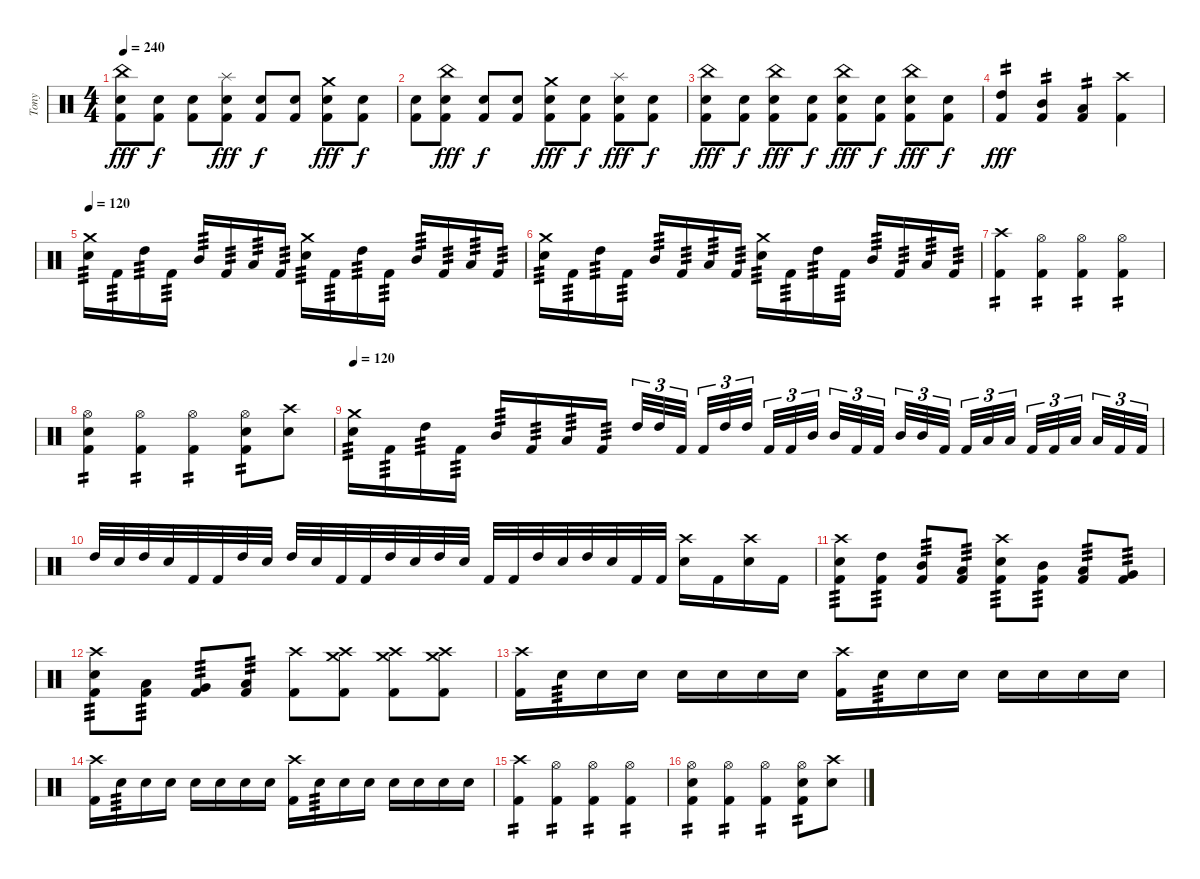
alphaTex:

\track ("Tony" "Tony") {instrument percussion}
\staff {score}
\articulation defaults
\ts (4 4)
\tempo 240
\clef neutral
\ks c
("China (hit)" "Snare (hit) 2" "Kick (hit) 2").8{dy fff} ("Snare (hit) 2" "Kick (hit) 2").8{dy f} ("Snare (hit) 2" "Kick (hit) 2").8 ("Splash (hit)" "Snare (hit) 2" "Kick (hit) 2").8{dy fff} ("Snare (hit) 2" "Kick (hit) 2").8{dy f} ("Snare (hit) 2" "Kick (hit) 2").8 ("Crash medium (hit)" "Snare (hit) 2" "Kick (hit) 2").8{dy fff} ("Snare (hit) 2" "Kick (hit) 2").8{dy f} |
("Snare (hit) 2" "Kick (hit) 2").8 ("China (hit)" "Snare (hit) 2" "Kick (hit) 2").8{dy fff} ("Snare (hit) 2" "Kick (hit) 2").8{dy f} ("Snare (hit) 2" "Kick (hit) 2").8 ("Crash medium (hit)" "Snare (hit) 2" "Kick (hit) 2").8{dy fff} ("Snare (hit) 2" "Kick (hit) 2").8{dy f} ("Splash (hit)" "Snare (hit) 2" "Kick (hit) 2").8{dy fff} ("Snare (hit) 2" "Kick (hit) 2").8{dy f} |
("China (hit)" "Snare (hit) 2" "Kick (hit) 2").8{dy fff} ("Snare (hit) 2" "Kick (hit) 2").8{dy f} ("China (hit)" "Snare (hit) 2" "Kick (hit) 2").8{dy fff} ("Snare (hit) 2" "Kick (hit) 2").8{dy f} ("China (hit)" "Snare (hit) 2" "Kick (hit) 2").8{dy fff} ("Snare (hit) 2" "Kick (hit) 2").8{dy f} ("China (hit)" "Snare (hit) 2" "Kick (hit) 2").8{dy fff} ("Snare (hit) 2" "Kick (hit) 2").8{dy f} |
("High Tom (hit)" "Kick (hit) 2").4{tp 2 dy fff} ("Mid Tom (hit)" "Kick (hit) 2").4{tp 2} ("Low Tom (hit)" "Kick (hit) 2").4{tp 2} ("Crash high (hit)" "Kick (hit) 2").4 |
\tempo 120
("Crash medium (hit)" "Snare (hit) 2").16{tp 3} "Kick (hit) 2".16{tp 3} "High Tom (hit)".16{tp 3} "Kick (hit) 2".16{tp 3} "Mid Tom (hit)".16{tp 3} "Kick (hit) 2".16{tp 3} "Low Tom (hit)".16{tp 3} "Kick (hit) 2".16{tp 3} ("Crash medium (hit)" "Snare (hit) 2").16{tp 3} "Kick (hit) 2".16{tp 3} "High Tom (hit)".16{tp 3} "Kick (hit) 2".16{tp 3} "Mid Tom (hit)".16{tp 3} "Kick (hit) 2".16{tp 3} "Low Tom (hit)".16{tp 3} "Kick (hit) 2".16{tp 3} |
("Crash medium (hit)" "Snare (hit) 2").16{tp 3} "Kick (hit) 2".16{tp 3} "High Tom (hit)".16{tp 3} "Kick (hit) 2".16{tp 3} "Mid Tom (hit)".16{tp 3} "Kick (hit) 2".16{tp 3} "Low Tom (hit)".16{tp 3} "Kick (hit) 2".16{tp 3} ("Crash medium (hit)" "Snare (hit) 2").16{tp 3} "Kick (hit) 2".16{tp 3} "High Tom (hit)".16{tp 3} "Kick (hit) 2".16{tp 3} "Mid Tom (hit)".16{tp 3} "Kick (hit) 2".16{tp 3} "Low Tom (hit)".16{tp 3} "Kick (hit) 2".16{tp 3} |
("Crash high (hit)" "Kick (hit) 2").4{tp 2} ("Hi-Hat (open)" "Kick (hit) 2").4{tp 2} ("Hi-Hat (open)" "Kick (hit) 2").4{tp 2} ("Hi-Hat (open)" "Kick (hit) 2").4{tp 2} |
("Hi-Hat (open)" "Snare (hit) 2" "Kick (hit) 2").4{tp 2} ("Hi-Hat (open)" "Kick (hit) 2").4{tp 2} ("Hi-Hat (open)" "Kick (hit) 2").4{tp 2} ("Hi-Hat (open)" "Snare (hit)" "Kick (hit) 2").8{tp 2} ("Crash high (hit)" "Snare (hit) 2").8 |
\tempo 120
("Crash medium (hit)" "Snare (hit) 2").16{tp 3} "Kick (hit) 2".16{tp 3} "High Tom (hit)".16{tp 3} "Kick (hit) 2".16{tp 3} "Mid Tom (hit)".16{tp 3} "Kick (hit) 2".16{tp 3} "Low Tom (hit)".16{tp 3} "Kick (hit) 2".16{tp 3} "High Tom (hit)".32{tu (3 2)} "High Tom (hit)".32{tu (3 2)} "Kick (hit) 2".32{tu (3 2) beam splitsecondary} "Kick (hit) 2".32{tu (3 2)} "High Tom (hit)".32{tu (3 2)} "High Tom (hit)".32{tu (3 2) beam splitsecondary} "Kick (hit) 2".32{tu (3 2)} "Kick (hit) 2".32{tu (3 2)} "Mid Tom (hit)".32{tu (3 2) beam splitsecondary} "Mid Tom (hit)".32{tu (3 2)} "Kick (hit) 2".32{tu (3 2)} "Kick (hit) 2".32{tu (3 2)} "Mid Tom (hit)".32{tu (3 2)} "Mid Tom (hit)".32{tu (3 2)} "Kick (hit) 2".32{tu (3 2) beam splitsecondary} "Kick (hit) 2".32{tu (3 2)} "Low Tom (hit)".32{tu (3 2)} "Low Tom (hit)".32{tu (3 2) beam splitsecondary} "Kick (hit) 2".32{tu (3 2)} "Kick (hit) 2".32{tu (3 2)} "Low Tom (hit)".32{tu (3 2) beam splitsecondary} "Low Tom (hit)".32{tu (3 2)} "Kick (hit) 2".32{tu (3 2)} "Kick (hit) 2".32{tu (3 2)} |
"High Tom (hit)".32 "Snare (hit) 2".32 "High Tom (hit)".32 "Snare (hit) 2".32 "Kick (hit) 2".32 "Kick (hit) 2".32 "High Tom (hit)".32 "Snare (hit) 2".32 "High Tom (hit)".32 "Snare (hit) 2".32 "Kick (hit) 2".32 "Kick (hit) 2".32 "High Tom (hit)".32 "Snare (hit) 2".32 "High Tom (hit)".32 "Snare (hit) 2".32 "Kick (hit) 2".32 "Kick (hit) 2".32 "High Tom (hit)".32 "Snare (hit) 2".32 "High Tom (hit)".32 "Snare (hit) 2".32 "Kick (hit) 2".32 "Kick (hit) 2".32 ("Crash high (hit)" "Snare (hit) 2").16 "Kick (hit) 2".16 ("Crash high (hit)" "Snare (hit) 2").16 "Kick (hit) 2".16 |
("Crash high (hit)" "Snare (hit)" "Kick (hit) 2").8{tp 3} ("High Tom (hit)" "Kick (hit) 2").8{tp 3} ("Mid Tom (hit)" "Kick (hit) 2").8{tp 3} ("Low Tom (hit)" "Kick (hit) 2").8{tp 3} ("Crash high (hit)" "Snare (hit)" "Kick (hit) 2").8{tp 3} ("Mid Tom (hit)" "Kick (hit) 2").8{tp 3} ("Low Tom (hit)" "Kick (hit) 2").8{tp 3} ("Very Low Tom (hit)" "Kick (hit) 2").8{tp 3} |
("Crash high (hit)" "Snare (hit)" "Kick (hit) 2").8{tp 3} ("Low Tom (hit)" "Kick (hit) 2").8{tp 3} ("Very Low Tom (hit)" "Kick (hit) 2").8{tp 3} ("Low Floor Tom (hit)" "Kick (hit) 2").8{tp 3} ("Crash high (hit)" "Kick (hit) 2").8 ("Crash medium (hit)" "Crash high (hit)" "Kick (hit) 2").8 ("Crash medium (hit)" "Crash high (hit)" "Kick (hit) 2").8 ("Crash medium (hit)" "Crash high (hit)" "Kick (hit) 2").8 |
("Crash high (hit)" "Kick (hit) 2").16 "Snare (hit) 2".16{tp 3} "Snare (hit) 2".16 "Snare (hit) 2".16 "Snare (hit) 2".16 "Snare (hit) 2".16 "Snare (hit) 2".16 "Snare (hit) 2".16 ("Crash high (hit)" "Kick (hit) 2").16 "Snare (hit) 2".16{tp 3} "Snare (hit) 2".16 "Snare (hit) 2".16 "Snare (hit) 2".16 "Snare (hit) 2".16 "Snare (hit) 2".16 "Snare (hit) 2".16 |
("Crash high (hit)" "Kick (hit) 2").16 "Snare (hit) 2".16{tp 3} "Snare (hit) 2".16 "Snare (hit) 2".16 "Snare (hit) 2".16 "Snare (hit) 2".16 "Snare (hit) 2".16 "Snare (hit) 2".16 ("Crash high (hit)" "Kick (hit) 2").16 "Snare (hit) 2".16{tp 3} "Snare (hit) 2".16 "Snare (hit) 2".16 "Snare (hit) 2".16 "Snare (hit) 2".16 "Snare (hit) 2".16 "Snare (hit) 2".16 |
("Crash high (hit)" "Kick (hit) 2").4{tp 2} ("Hi-Hat (open)" "Kick (hit) 2").4{tp 2} ("Hi-Hat (open)" "Kick (hit) 2").4{tp 2} ("Hi-Hat (open)" "Kick (hit) 2").4{tp 2} |
("Hi-Hat (open)" "Snare (hit) 2" "Kick (hit) 2").4{tp 2} ("Hi-Hat (open)" "Kick (hit) 2").4{tp 2} ("Hi-Hat (open)" "Kick (hit) 2").4{tp 2} ("Hi-Hat (open)" "Snare (hit)" "Kick (hit) 2").8{tp 2} ("Crash high (hit)" "Snare (hit) 2").8
